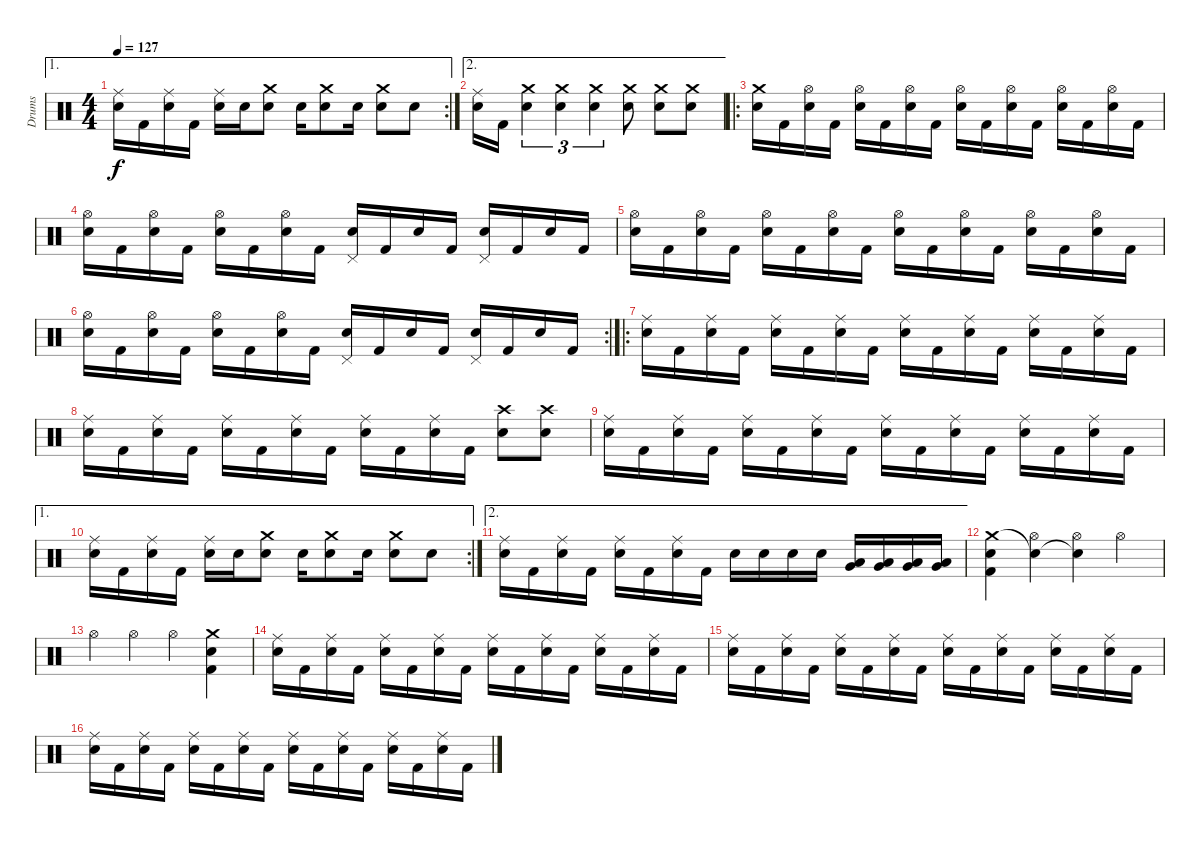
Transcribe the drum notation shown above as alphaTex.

\track ("Drums" "Drums") {instrument percussion}
\staff {score}
\articulation defaults
\ae 1
\rc 2
\ts (4 4)
\tempo 127
\clef neutral
\ks c
("Ride (middle)" "Snare (hit) 2").16{dy f} "Kick (hit) 2".16 ("Ride (middle)" "Snare (hit) 2").16 "Kick (hit) 2".16 ("Ride (middle)" "Snare (hit) 2").16 "Snare (hit) 2".16 ("Crash medium (hit)" "Snare (hit) 2").8 "Snare (hit) 2".16 ("Crash medium (hit)" "Snare (hit) 2").8 "Snare (hit) 2".16 ("Crash medium (hit)" "Snare (hit) 2").8 "Snare (hit) 2".8 |
\ae 2
("Ride (middle)" "Snare (hit) 2").16 "Kick (hit) 2".16 ("Crash medium (hit)" "Snare (hit) 2").4{tu (3 2)} ("Crash medium (hit)" "Snare (hit) 2").4{tu (3 2)} ("Crash medium (hit)" "Snare (hit) 2").4{tu (3 2)} ("Crash medium (hit)" "Snare (hit) 2").8 ("Crash medium (hit)" "Snare (hit) 2").8 ("Crash medium (hit)" "Snare (hit) 2").8 |
\ro
("Crash medium (hit)" "Snare (hit) 2").16 "Kick (hit) 2".16 ("Hi-Hat (open)" "Snare (hit) 2").16 "Kick (hit) 2".16 ("Hi-Hat (open)" "Snare (hit) 2").16 "Kick (hit) 2".16 ("Hi-Hat (open)" "Snare (hit) 2").16 "Kick (hit) 2".16 ("Hi-Hat (open)" "Snare (hit) 2").16 "Kick (hit) 2".16 ("Hi-Hat (open)" "Snare (hit) 2").16 "Kick (hit) 2".16 ("Hi-Hat (open)" "Snare (hit) 2").16 "Kick (hit) 2".16 ("Hi-Hat (open)" "Snare (hit) 2").16 "Kick (hit) 2".16 |
("Hi-Hat (open)" "Snare (hit) 2").16 "Kick (hit) 2".16 ("Hi-Hat (open)" "Snare (hit) 2").16 "Kick (hit) 2".16 ("Hi-Hat (open)" "Snare (hit) 2").16 "Kick (hit) 2".16 ("Hi-Hat (open)" "Snare (hit) 2").16 "Kick (hit) 2".16 ("Pedal Hi-Hat (hit)" "Snare (hit) 2").16 "Kick (hit) 2".16 "Snare (hit) 2".16 "Kick (hit) 2".16 ("Pedal Hi-Hat (hit)" "Snare (hit) 2").16 "Kick (hit) 2".16 "Snare (hit) 2".16 "Kick (hit) 2".16 |
("Hi-Hat (open)" "Snare (hit) 2").16 "Kick (hit) 2".16 ("Hi-Hat (open)" "Snare (hit) 2").16 "Kick (hit) 2".16 ("Hi-Hat (open)" "Snare (hit) 2").16 "Kick (hit) 2".16 ("Hi-Hat (open)" "Snare (hit) 2").16 "Kick (hit) 2".16 ("Hi-Hat (open)" "Snare (hit) 2").16 "Kick (hit) 2".16 ("Hi-Hat (open)" "Snare (hit) 2").16 "Kick (hit) 2".16 ("Hi-Hat (open)" "Snare (hit) 2").16 "Kick (hit) 2".16 ("Hi-Hat (open)" "Snare (hit) 2").16 "Kick (hit) 2".16 |
\rc 2
("Hi-Hat (open)" "Snare (hit) 2").16 "Kick (hit) 2".16 ("Hi-Hat (open)" "Snare (hit) 2").16 "Kick (hit) 2".16 ("Hi-Hat (open)" "Snare (hit) 2").16 "Kick (hit) 2".16 ("Hi-Hat (open)" "Snare (hit) 2").16 "Kick (hit) 2".16 ("Pedal Hi-Hat (hit)" "Snare (hit) 2").16 "Kick (hit) 2".16 "Snare (hit) 2".16 "Kick (hit) 2".16 ("Pedal Hi-Hat (hit)" "Snare (hit) 2").16 "Kick (hit) 2".16 "Snare (hit) 2".16 "Kick (hit) 2".16 |
\ro
("Ride (middle)" "Snare (hit) 2").16 "Kick (hit) 2".16 ("Ride (middle)" "Snare (hit) 2").16 "Kick (hit) 2".16 ("Ride (middle)" "Snare (hit) 2").16 "Kick (hit) 2".16 ("Ride (middle)" "Snare (hit) 2").16 "Kick (hit) 2".16 ("Ride (middle)" "Snare (hit) 2").16 "Kick (hit) 2".16 ("Ride (middle)" "Snare (hit) 2").16 "Kick (hit) 2".16 ("Ride (middle)" "Snare (hit) 2").16 "Kick (hit) 2".16 ("Ride (middle)" "Snare (hit) 2").16 "Kick (hit) 2".16 |
("Ride (middle)" "Snare (hit) 2").16 "Kick (hit) 2".16 ("Ride (middle)" "Snare (hit) 2").16 "Kick (hit) 2".16 ("Ride (middle)" "Snare (hit) 2").16 "Kick (hit) 2".16 ("Ride (middle)" "Snare (hit) 2").16 "Kick (hit) 2".16 ("Ride (middle)" "Snare (hit) 2").16 "Kick (hit) 2".16 ("Ride (middle)" "Snare (hit) 2").16 "Kick (hit) 2".16 ("Crash high (hit)" "Snare (hit) 2").8 ("Crash high (hit)" "Snare (hit) 2").8 |
("Ride (middle)" "Snare (hit) 2").16 "Kick (hit) 2".16 ("Ride (middle)" "Snare (hit) 2").16 "Kick (hit) 2".16 ("Ride (middle)" "Snare (hit) 2").16 "Kick (hit) 2".16 ("Ride (middle)" "Snare (hit) 2").16 "Kick (hit) 2".16 ("Ride (middle)" "Snare (hit) 2").16 "Kick (hit) 2".16 ("Ride (middle)" "Snare (hit) 2").16 "Kick (hit) 2".16 ("Ride (middle)" "Snare (hit) 2").16 "Kick (hit) 2".16 ("Ride (middle)" "Snare (hit) 2").16 "Kick (hit) 2".16 |
\ae 1
\rc 2
("Ride (middle)" "Snare (hit) 2").16 "Kick (hit) 2".16 ("Ride (middle)" "Snare (hit) 2").16 "Kick (hit) 2".16 ("Ride (middle)" "Snare (hit) 2").16 "Snare (hit) 2".16 ("Crash medium (hit)" "Snare (hit) 2").8 "Snare (hit) 2".16 ("Crash medium (hit)" "Snare (hit) 2").8 "Snare (hit) 2".16 ("Crash medium (hit)" "Snare (hit) 2").8 "Snare (hit) 2".8 |
\ae 2
("Ride (middle)" "Snare (hit) 2").16 "Kick (hit) 2".16 ("Ride (middle)" "Snare (hit) 2").16 "Kick (hit) 2".16 ("Ride (middle)" "Snare (hit) 2").16 "Kick (hit) 2".16 ("Ride (middle)" "Snare (hit) 2").16 "Kick (hit) 2".16 "Snare (hit) 2".16 "Snare (hit) 2".16 "Snare (hit) 2".16 "Snare (hit) 2".16 ("Very Low Tom (hit)" "Low Floor Tom (hit)").16 ("Very Low Tom (hit)" "Low Floor Tom (hit)").16 ("Very Low Tom (hit)" "Low Floor Tom (hit)").16 ("Very Low Tom (hit)" "Low Floor Tom (hit)").16 |
("Crash medium (hit)" "Snare (hit) 2" "Kick (hit) 2").4 ("Snare (hit)"{t} "Hi-Hat (open)").4 ("Snare (hit)"{t} "Hi-Hat (open)").4 "Hi-Hat (open)".4 |
"Hi-Hat (open)".4 "Hi-Hat (open)".4 "Hi-Hat (open)".4 ("Crash medium (hit)" "Kick (hit) 2" "Snare (hit) 2").4 |
("Ride (middle)" "Snare (hit) 2").16 "Kick (hit) 2".16 ("Ride (middle)" "Snare (hit) 2").16 "Kick (hit) 2".16 ("Ride (middle)" "Snare (hit) 2").16 "Kick (hit) 2".16 ("Ride (middle)" "Snare (hit) 2").16 "Kick (hit) 2".16 ("Ride (middle)" "Snare (hit) 2").16 "Kick (hit) 2".16 ("Ride (middle)" "Snare (hit) 2").16 "Kick (hit) 2".16 ("Ride (middle)" "Snare (hit) 2").16 "Kick (hit) 2".16 ("Ride (middle)" "Snare (hit) 2").16 "Kick (hit) 2".16 |
("Ride (middle)" "Snare (hit) 2").16 "Kick (hit) 2".16 ("Ride (middle)" "Snare (hit) 2").16 "Kick (hit) 2".16 ("Ride (middle)" "Snare (hit) 2").16 "Kick (hit) 2".16 ("Ride (middle)" "Snare (hit) 2").16 "Kick (hit) 2".16 ("Ride (middle)" "Snare (hit) 2").16 "Kick (hit) 2".16 ("Ride (middle)" "Snare (hit) 2").16 "Kick (hit) 2".16 ("Ride (middle)" "Snare (hit) 2").16 "Kick (hit) 2".16 ("Ride (middle)" "Snare (hit) 2").16 "Kick (hit) 2".16 |
("Ride (middle)" "Snare (hit) 2").16 "Kick (hit) 2".16 ("Ride (middle)" "Snare (hit) 2").16 "Kick (hit) 2".16 ("Ride (middle)" "Snare (hit) 2").16 "Kick (hit) 2".16 ("Ride (middle)" "Snare (hit) 2").16 "Kick (hit) 2".16 ("Ride (middle)" "Snare (hit) 2").16 "Kick (hit) 2".16 ("Ride (middle)" "Snare (hit) 2").16 "Kick (hit) 2".16 ("Ride (middle)" "Snare (hit) 2").16 "Kick (hit) 2".16 ("Ride (middle)" "Snare (hit) 2").16 "Kick (hit) 2".16
